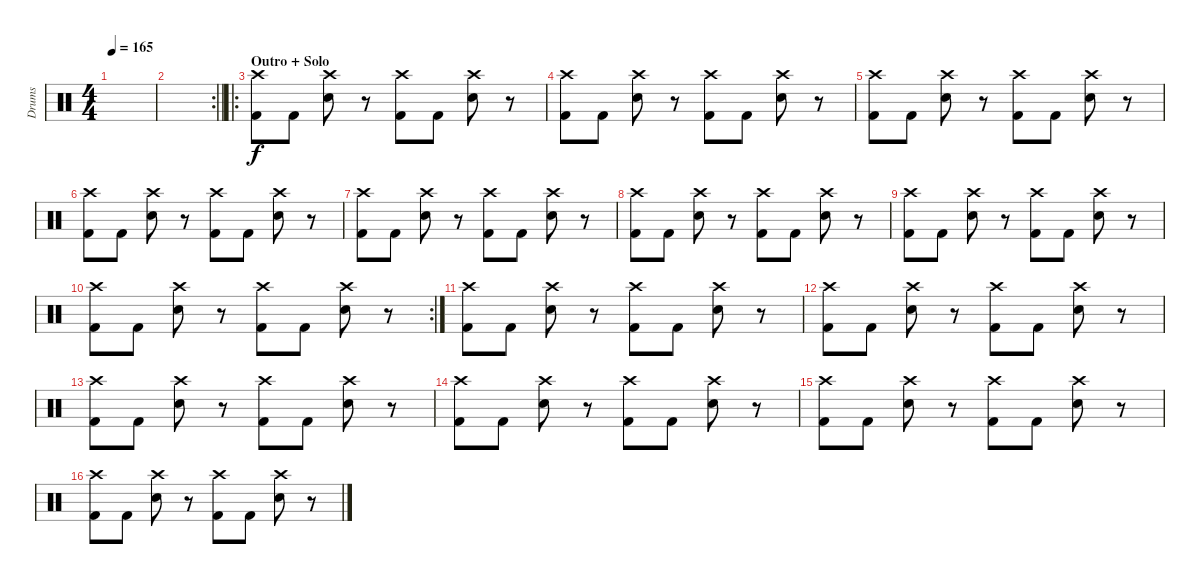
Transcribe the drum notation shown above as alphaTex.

\track ("Drums" "Drums") {instrument percussion}
\staff {score}
\articulation defaults
\ts (4 4)
\tempo 165
\clef neutral
\ks c
|
\rc 2
\barLineRight lightlight
|
\ro
\section ("" "Outro + Solo")
("Crash high (hit)" "Kick (hit) 2").8 "Kick (hit) 2".8 ("Crash high (hit)" "Electric Snare (hit)").8 r.8 ("Crash high (hit)" "Kick (hit) 2").8 "Kick (hit) 2".8 ("Crash high (hit)" "Electric Snare (hit)").8 r.8 |
("Crash high (hit)" "Kick (hit) 2").8 "Kick (hit) 2".8 ("Crash high (hit)" "Electric Snare (hit)").8 r.8 ("Crash high (hit)" "Kick (hit) 2").8 "Kick (hit) 2".8 ("Crash high (hit)" "Electric Snare (hit)").8 r.8 |
("Crash high (hit)" "Kick (hit) 2").8 "Kick (hit) 2".8 ("Crash high (hit)" "Electric Snare (hit)").8 r.8 ("Crash high (hit)" "Kick (hit) 2").8 "Kick (hit) 2".8 ("Crash high (hit)" "Electric Snare (hit)").8 r.8 |
("Crash high (hit)" "Kick (hit) 2").8 "Kick (hit) 2".8 ("Crash high (hit)" "Electric Snare (hit)").8 r.8 ("Crash high (hit)" "Kick (hit) 2").8 "Kick (hit) 2".8 ("Crash high (hit)" "Electric Snare (hit)").8 r.8 |
("Crash high (hit)" "Kick (hit) 2").8 "Kick (hit) 2".8 ("Crash high (hit)" "Electric Snare (hit)").8 r.8 ("Crash high (hit)" "Kick (hit) 2").8 "Kick (hit) 2".8 ("Crash high (hit)" "Electric Snare (hit)").8 r.8 |
("Crash high (hit)" "Kick (hit) 2").8 "Kick (hit) 2".8 ("Crash high (hit)" "Electric Snare (hit)").8 r.8 ("Crash high (hit)" "Kick (hit) 2").8 "Kick (hit) 2".8 ("Crash high (hit)" "Electric Snare (hit)").8 r.8 |
("Crash high (hit)" "Kick (hit) 2").8 "Kick (hit) 2".8 ("Crash high (hit)" "Electric Snare (hit)").8 r.8 ("Crash high (hit)" "Kick (hit) 2").8 "Kick (hit) 2".8 ("Crash high (hit)" "Electric Snare (hit)").8 r.8 |
\rc 2
("Crash high (hit)" "Kick (hit) 2").8 "Kick (hit) 2".8 ("Crash high (hit)" "Electric Snare (hit)").8 r.8 ("Crash high (hit)" "Kick (hit) 2").8 "Kick (hit) 2".8 ("Crash high (hit)" "Electric Snare (hit)").8 r.8 |
("Crash high (hit)" "Kick (hit) 2").8 "Kick (hit) 2".8 ("Crash high (hit)" "Electric Snare (hit)").8 r.8 ("Crash high (hit)" "Kick (hit) 2").8 "Kick (hit) 2".8 ("Crash high (hit)" "Electric Snare (hit)").8 r.8 |
("Crash high (hit)" "Kick (hit) 2").8 "Kick (hit) 2".8 ("Crash high (hit)" "Electric Snare (hit)").8 r.8 ("Crash high (hit)" "Kick (hit) 2").8 "Kick (hit) 2".8 ("Crash high (hit)" "Electric Snare (hit)").8 r.8 |
("Crash high (hit)" "Kick (hit) 2").8 "Kick (hit) 2".8 ("Crash high (hit)" "Electric Snare (hit)").8 r.8 ("Crash high (hit)" "Kick (hit) 2").8 "Kick (hit) 2".8 ("Crash high (hit)" "Electric Snare (hit)").8 r.8 |
("Crash high (hit)" "Kick (hit) 2").8 "Kick (hit) 2".8 ("Crash high (hit)" "Electric Snare (hit)").8 r.8 ("Crash high (hit)" "Kick (hit) 2").8 "Kick (hit) 2".8 ("Crash high (hit)" "Electric Snare (hit)").8 r.8 |
("Crash high (hit)" "Kick (hit) 2").8 "Kick (hit) 2".8 ("Crash high (hit)" "Electric Snare (hit)").8 r.8 ("Crash high (hit)" "Kick (hit) 2").8 "Kick (hit) 2".8 ("Crash high (hit)" "Electric Snare (hit)").8 r.8 |
("Crash high (hit)" "Kick (hit) 2").8 "Kick (hit) 2".8 ("Crash high (hit)" "Electric Snare (hit)").8 r.8 ("Crash high (hit)" "Kick (hit) 2").8 "Kick (hit) 2".8 ("Crash high (hit)" "Electric Snare (hit)").8 r.8
